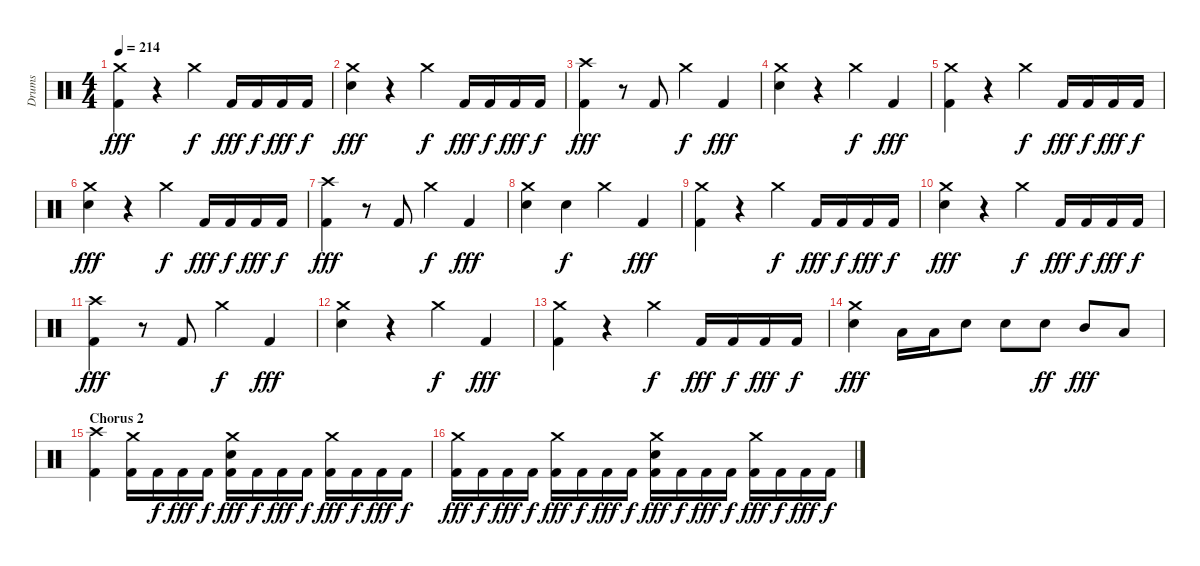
\track ("Drums" "Drums") {instrument percussion}
\staff {score}
\articulation defaults
\ts (4 4)
\tempo 214
\clef neutral
\ks c
("Crash medium (hit)" "Kick (hit) 2").4{dy fff} r.4 "Crash medium (hit)".4{dy f} "Kick (hit) 2".16{dy fff} "Kick (hit) 2".16{dy f} "Kick (hit) 2".16{dy fff} "Kick (hit) 2".16{dy f} |
("Crash medium (hit)" "Electric Snare (hit)").4{dy fff} r.4 "Crash medium (hit)".4{dy f} "Kick (hit) 2".16{dy fff} "Kick (hit) 2".16{dy f} "Kick (hit) 2".16{dy fff} "Kick (hit) 2".16{dy f} |
("Crash high (hit)" "Kick (hit) 2").4{dy fff} r.8 "Kick (hit) 2".8 "Crash medium (hit)".4{dy f} "Kick (hit) 2".4{dy fff} |
("Crash medium (hit)" "Electric Snare (hit)").4 r.4 "Crash medium (hit)".4{dy f} "Kick (hit) 2".4{dy fff} |
("Crash medium (hit)" "Kick (hit) 2").4 r.4 "Crash medium (hit)".4{dy f} "Kick (hit) 2".16{dy fff} "Kick (hit) 2".16{dy f} "Kick (hit) 2".16{dy fff} "Kick (hit) 2".16{dy f} |
("Crash medium (hit)" "Electric Snare (hit)").4{dy fff} r.4 "Crash medium (hit)".4{dy f} "Kick (hit) 2".16{dy fff} "Kick (hit) 2".16{dy f} "Kick (hit) 2".16{dy fff} "Kick (hit) 2".16{dy f} |
("Crash high (hit)" "Kick (hit) 2").4{dy fff} r.8 "Kick (hit) 2".8 "Crash medium (hit)".4{dy f} "Kick (hit) 2".4{dy fff} |
("Crash medium (hit)" "Electric Snare (hit)").4 "Electric Snare (hit)".4{dy f} "Crash medium (hit)".4 "Kick (hit) 2".4{dy fff} |
("Crash medium (hit)" "Kick (hit) 2").4 r.4 "Crash medium (hit)".4{dy f} "Kick (hit) 2".16{dy fff} "Kick (hit) 2".16{dy f} "Kick (hit) 2".16{dy fff} "Kick (hit) 2".16{dy f} |
("Crash medium (hit)" "Electric Snare (hit)").4{dy fff} r.4 "Crash medium (hit)".4{dy f} "Kick (hit) 2".16{dy fff} "Kick (hit) 2".16{dy f} "Kick (hit) 2".16{dy fff} "Kick (hit) 2".16{dy f} |
("Crash high (hit)" "Kick (hit) 2").4{dy fff} r.8 "Kick (hit) 2".8 "Crash medium (hit)".4{dy f} "Kick (hit) 2".4{dy fff} |
("Crash medium (hit)" "Electric Snare (hit)").4 r.4 "Crash medium (hit)".4{dy f} "Kick (hit) 2".4{dy fff} |
("Crash medium (hit)" "Kick (hit) 2").4 r.4 "Crash medium (hit)".4{dy f} "Kick (hit) 2".16{dy fff} "Kick (hit) 2".16{dy f} "Kick (hit) 2".16{dy fff} "Kick (hit) 2".16{dy f} |
("Crash medium (hit)" "Electric Snare (hit)").4{dy fff} "Low Tom (hit)".16 "Low Tom (hit)".16 "Electric Snare (hit)".8 "Electric Snare (hit)".8 "Electric Snare (hit)".8{dy ff} "Mid Tom (hit)".8{dy fff} "Low Tom (hit)".8 |
\section ("" "Chorus 2")
("Crash high (hit)" "Kick (hit) 2").4 ("Crash medium (hit)" "Kick (hit) 2").16 "Kick (hit) 2".16{dy f} "Kick (hit) 2".16{dy fff} "Kick (hit) 2".16{dy f} ("Crash medium (hit)" "Electric Snare (hit)" "Kick (hit) 2").16{dy fff} "Kick (hit) 2".16{dy f} "Kick (hit) 2".16{dy fff} "Kick (hit) 2".16{dy f} ("Crash medium (hit)" "Kick (hit) 2").16{dy fff} "Kick (hit) 2".16{dy f} "Kick (hit) 2".16{dy fff} "Kick (hit) 2".16{dy f} |
("Crash medium (hit)" "Kick (hit) 2").16{dy fff} "Kick (hit) 2".16{dy f} "Kick (hit) 2".16{dy fff} "Kick (hit) 2".16{dy f} ("Crash medium (hit)" "Kick (hit) 2").16{dy fff} "Kick (hit) 2".16{dy f} "Kick (hit) 2".16{dy fff} "Kick (hit) 2".16{dy f} ("Crash medium (hit)" "Electric Snare (hit)" "Kick (hit) 2").16{dy fff} "Kick (hit) 2".16{dy f} "Kick (hit) 2".16{dy fff} "Kick (hit) 2".16{dy f} ("Crash medium (hit)" "Kick (hit) 2").16{dy fff} "Kick (hit) 2".16{dy f} "Kick (hit) 2".16{dy fff} "Kick (hit) 2".16{dy f}
